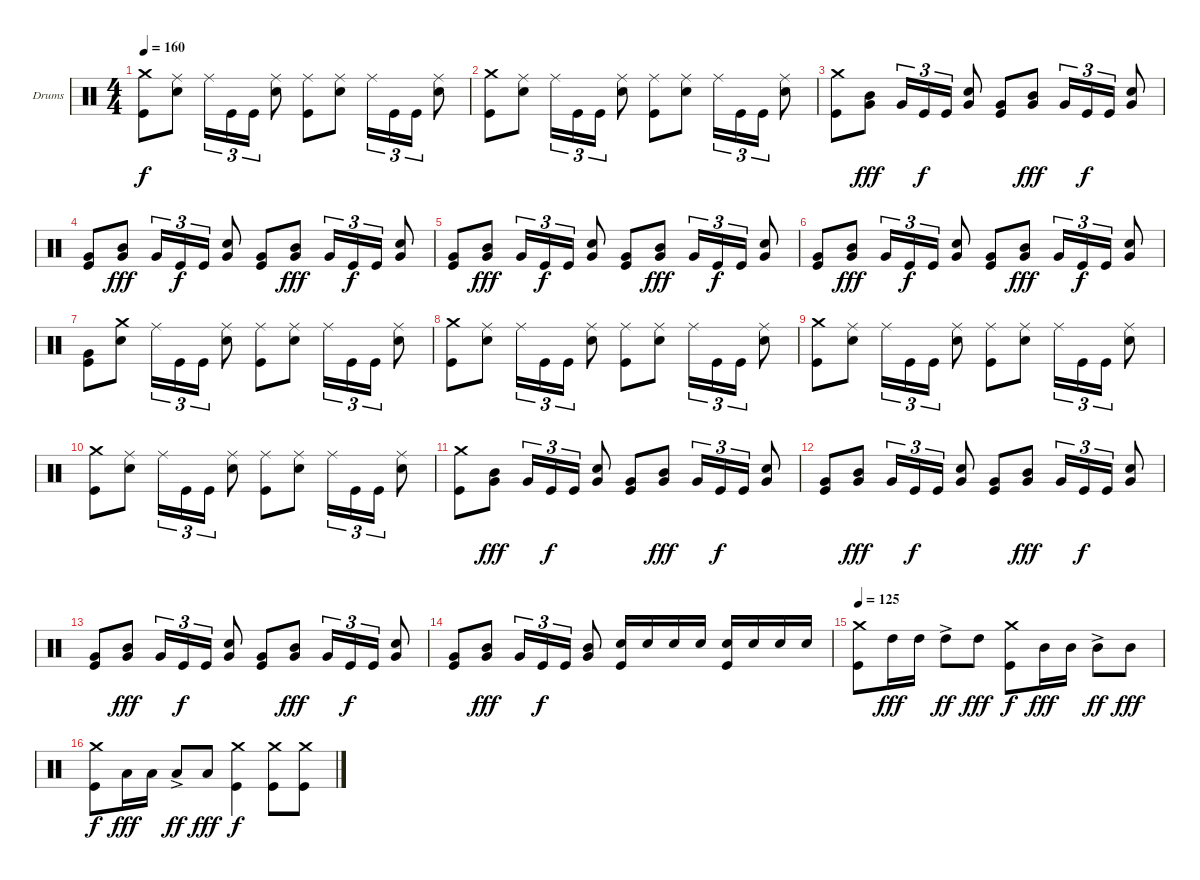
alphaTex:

\bracketExtendMode groupsimilarinstruments
\firstSystemTrackNameOrientation horizontal
\otherSystemsTrackNameOrientation horizontal
\track ("Drums" "Drums") {instrument percussion}
\staff {score}
\articulation defaults
\ts (4 4)
\tempo 160
\clef neutral
\ks c
("Crash medium (hit)" "Kick (hit)").8{dy f} ("Ride (middle)" "Snare (hit) 2").8 "Ride (middle)".16{tu (3 2)} "Kick (hit)".16{tu (3 2)} "Kick (hit)".16{tu (3 2)} ("Ride (middle)" "Snare (hit) 2").8 ("Ride (middle)" "Kick (hit)").8 ("Ride (middle)" "Snare (hit) 2").8 "Ride (middle)".16{tu (3 2)} "Kick (hit)".16{tu (3 2)} "Kick (hit)".16{tu (3 2)} ("Ride (middle)" "Snare (hit) 2").8 |
("Crash medium (hit)" "Kick (hit)").8 ("Ride (middle)" "Snare (hit) 2").8 "Ride (middle)".16{tu (3 2)} "Kick (hit)".16{tu (3 2)} "Kick (hit)".16{tu (3 2)} ("Ride (middle)" "Snare (hit) 2").8 ("Ride (middle)" "Kick (hit)").8 ("Ride (middle)" "Snare (hit) 2").8 "Ride (middle)".16{tu (3 2)} "Kick (hit)".16{tu (3 2)} "Kick (hit)".16{tu (3 2)} ("Ride (middle)" "Snare (hit) 2").8 |
("Crash medium (hit)" "Kick (hit)").8 ("Very Low Tom (hit)" "Mid Tom (hit)").8{dy fff} "Very Low Tom (hit)".16{tu (3 2)} "Kick (hit)".16{tu (3 2) dy f} "Kick (hit)".16{tu (3 2)} ("Snare (hit) 2" "Very Low Tom (hit)").8 ("Very Low Tom (hit)" "Kick (hit)").8 ("Very Low Tom (hit)" "Mid Tom (hit)").8{dy fff} "Very Low Tom (hit)".16{tu (3 2)} "Kick (hit)".16{tu (3 2) dy f} "Kick (hit)".16{tu (3 2)} ("Snare (hit) 2" "Very Low Tom (hit)").8 |
("Very Low Tom (hit)" "Kick (hit)").8 ("Very Low Tom (hit)" "Mid Tom (hit)").8{dy fff} "Very Low Tom (hit)".16{tu (3 2)} "Kick (hit)".16{tu (3 2) dy f} "Kick (hit)".16{tu (3 2)} ("Snare (hit) 2" "Very Low Tom (hit)").8 ("Very Low Tom (hit)" "Kick (hit)").8 ("Very Low Tom (hit)" "Mid Tom (hit)").8{dy fff} "Very Low Tom (hit)".16{tu (3 2)} "Kick (hit)".16{tu (3 2) dy f} "Kick (hit)".16{tu (3 2)} ("Snare (hit) 2" "Very Low Tom (hit)").8 |
("Very Low Tom (hit)" "Kick (hit)").8 ("Very Low Tom (hit)" "Mid Tom (hit)").8{dy fff} "Very Low Tom (hit)".16{tu (3 2)} "Kick (hit)".16{tu (3 2) dy f} "Kick (hit)".16{tu (3 2)} ("Snare (hit) 2" "Very Low Tom (hit)").8 ("Very Low Tom (hit)" "Kick (hit)").8 ("Very Low Tom (hit)" "Mid Tom (hit)").8{dy fff} "Very Low Tom (hit)".16{tu (3 2)} "Kick (hit)".16{tu (3 2) dy f} "Kick (hit)".16{tu (3 2)} ("Snare (hit) 2" "Very Low Tom (hit)").8 |
("Very Low Tom (hit)" "Kick (hit)").8 ("Very Low Tom (hit)" "Mid Tom (hit)").8{dy fff} "Very Low Tom (hit)".16{tu (3 2)} "Kick (hit)".16{tu (3 2) dy f} "Kick (hit)".16{tu (3 2)} ("Snare (hit) 2" "Very Low Tom (hit)").8 ("Very Low Tom (hit)" "Kick (hit)").8 ("Very Low Tom (hit)" "Mid Tom (hit)").8{dy fff} "Very Low Tom (hit)".16{tu (3 2)} "Kick (hit)".16{tu (3 2) dy f} "Kick (hit)".16{tu (3 2)} ("Snare (hit) 2" "Very Low Tom (hit)").8 |
("Very Low Tom (hit)" "Kick (hit)").8 ("Crash medium (hit)" "Snare (hit) 2").8 "Ride (middle)".16{tu (3 2)} "Kick (hit)".16{tu (3 2)} "Kick (hit)".16{tu (3 2)} ("Ride (middle)" "Snare (hit) 2").8 ("Ride (middle)" "Kick (hit)").8 ("Ride (middle)" "Snare (hit) 2").8 "Ride (middle)".16{tu (3 2)} "Kick (hit)".16{tu (3 2)} "Kick (hit)".16{tu (3 2)} ("Ride (middle)" "Snare (hit) 2").8 |
("Crash medium (hit)" "Kick (hit)").8 ("Ride (middle)" "Snare (hit) 2").8 "Ride (middle)".16{tu (3 2)} "Kick (hit)".16{tu (3 2)} "Kick (hit)".16{tu (3 2)} ("Ride (middle)" "Snare (hit) 2").8 ("Ride (middle)" "Kick (hit)").8 ("Ride (middle)" "Snare (hit) 2").8 "Ride (middle)".16{tu (3 2)} "Kick (hit)".16{tu (3 2)} "Kick (hit)".16{tu (3 2)} ("Ride (middle)" "Snare (hit) 2").8 |
("Crash medium (hit)" "Kick (hit)").8 ("Ride (middle)" "Snare (hit) 2").8 "Ride (middle)".16{tu (3 2)} "Kick (hit)".16{tu (3 2)} "Kick (hit)".16{tu (3 2)} ("Ride (middle)" "Snare (hit) 2").8 ("Ride (middle)" "Kick (hit)").8 ("Ride (middle)" "Snare (hit) 2").8 "Ride (middle)".16{tu (3 2)} "Kick (hit)".16{tu (3 2)} "Kick (hit)".16{tu (3 2)} ("Ride (middle)" "Snare (hit) 2").8 |
("Crash medium (hit)" "Kick (hit)").8 ("Ride (middle)" "Snare (hit) 2").8 "Ride (middle)".16{tu (3 2)} "Kick (hit)".16{tu (3 2)} "Kick (hit)".16{tu (3 2)} ("Ride (middle)" "Snare (hit) 2").8 ("Ride (middle)" "Kick (hit)").8 ("Ride (middle)" "Snare (hit) 2").8 "Ride (middle)".16{tu (3 2)} "Kick (hit)".16{tu (3 2)} "Kick (hit)".16{tu (3 2)} ("Ride (middle)" "Snare (hit) 2").8 |
("Crash medium (hit)" "Kick (hit)").8 ("Very Low Tom (hit)" "Mid Tom (hit)").8{dy fff} "Very Low Tom (hit)".16{tu (3 2)} "Kick (hit)".16{tu (3 2) dy f} "Kick (hit)".16{tu (3 2)} ("Snare (hit) 2" "Very Low Tom (hit)").8 ("Very Low Tom (hit)" "Kick (hit)").8 ("Very Low Tom (hit)" "Mid Tom (hit)").8{dy fff} "Very Low Tom (hit)".16{tu (3 2)} "Kick (hit)".16{tu (3 2) dy f} "Kick (hit)".16{tu (3 2)} ("Snare (hit) 2" "Very Low Tom (hit)").8 |
("Very Low Tom (hit)" "Kick (hit)").8 ("Very Low Tom (hit)" "Mid Tom (hit)").8{dy fff} "Very Low Tom (hit)".16{tu (3 2)} "Kick (hit)".16{tu (3 2) dy f} "Kick (hit)".16{tu (3 2)} ("Snare (hit) 2" "Very Low Tom (hit)").8 ("Very Low Tom (hit)" "Kick (hit)").8 ("Very Low Tom (hit)" "Mid Tom (hit)").8{dy fff} "Very Low Tom (hit)".16{tu (3 2)} "Kick (hit)".16{tu (3 2) dy f} "Kick (hit)".16{tu (3 2)} ("Snare (hit) 2" "Very Low Tom (hit)").8 |
("Very Low Tom (hit)" "Kick (hit)").8 ("Very Low Tom (hit)" "Mid Tom (hit)").8{dy fff} "Very Low Tom (hit)".16{tu (3 2)} "Kick (hit)".16{tu (3 2) dy f} "Kick (hit)".16{tu (3 2)} ("Snare (hit) 2" "Very Low Tom (hit)").8 ("Very Low Tom (hit)" "Kick (hit)").8 ("Very Low Tom (hit)" "Mid Tom (hit)").8{dy fff} "Very Low Tom (hit)".16{tu (3 2)} "Kick (hit)".16{tu (3 2) dy f} "Kick (hit)".16{tu (3 2)} ("Snare (hit) 2" "Very Low Tom (hit)").8 |
("Very Low Tom (hit)" "Kick (hit)").8 ("Very Low Tom (hit)" "Mid Tom (hit)").8{dy fff} "Very Low Tom (hit)".16{tu (3 2)} "Kick (hit)".16{tu (3 2) dy f} "Kick (hit)".16{tu (3 2)} ("Very Low Tom (hit)" "Mid Tom (hit)").8 ("Snare (hit) 2" "Kick (hit)").16 "Snare (hit) 2".16 "Snare (hit) 2".16 "Snare (hit) 2".16 ("Snare (hit) 2" "Kick (hit)").16 "Snare (hit) 2".16 "Snare (hit) 2".16 "Snare (hit) 2".16 |
\tempo 125
("Crash medium (hit)" "Kick (hit)").8 "High Tom (hit)".16{dy fff} "High Tom (hit)".16 "High Tom (hit)"{ac}.8{dy ff} "High Tom (hit)".8{dy fff} ("Crash medium (hit)" "Kick (hit)").8{dy f} "Mid Tom (hit)".16{dy fff} "Mid Tom (hit)".16 "Mid Tom (hit)"{ac}.8{dy ff} "Mid Tom (hit)".8{dy fff} |
("Crash medium (hit)" "Kick (hit)").8{dy f} "Low Tom (hit)".16{dy fff} "Low Tom (hit)".16 "Low Tom (hit)"{ac}.8{dy ff} "Low Tom (hit)".8{dy fff} ("Crash medium (hit)" "Kick (hit)").4{dy f} ("Crash medium (hit)" "Kick (hit)").8 ("Crash medium (hit)" "Kick (hit)").8
